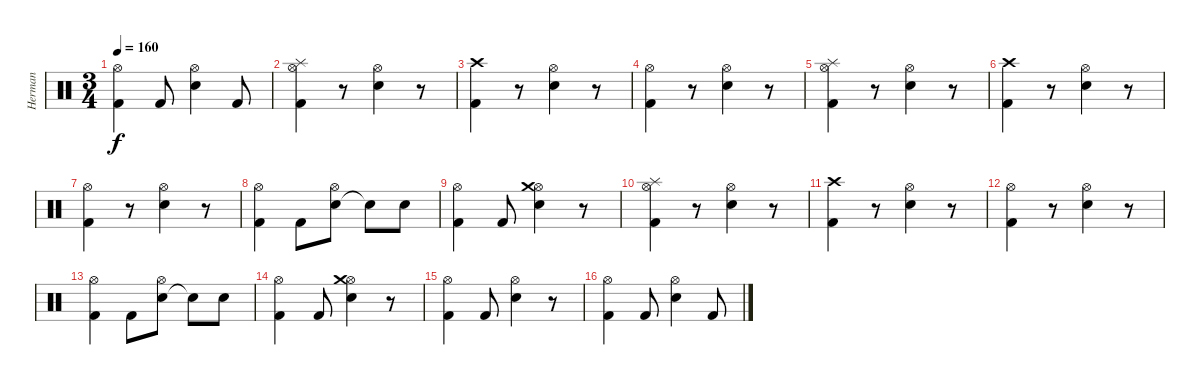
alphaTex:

\track ("Herman" "Herman") {instrument percussion}
\staff {score}
\articulation defaults
\ts (3 4)
\tempo 160
\clef neutral
\ks c
("Kick (hit) 2" "Hi-Hat (open)").4{dy f} "Kick (hit) 2".8 ("Electric Snare (hit)" "Hi-Hat (open)").4 "Kick (hit) 2".8 |
("Kick (hit) 2" "Hi-Hat (open)" "Splash (hit)").4 r.8 ("Electric Snare (hit)" "Hi-Hat (open)").4 r.8 |
("Kick (hit) 2" "Crash high (hit)").4 r.8 ("Electric Snare (hit)" "Hi-Hat (open)").4 r.8 |
("Kick (hit) 2" "Hi-Hat (open)").4 r.8 ("Electric Snare (hit)" "Hi-Hat (open)").4 r.8 |
("Kick (hit) 2" "Hi-Hat (open)" "Splash (hit)").4 r.8 ("Electric Snare (hit)" "Hi-Hat (open)").4 r.8 |
("Kick (hit) 2" "Crash high (hit)").4 r.8 ("Electric Snare (hit)" "Hi-Hat (open)").4 r.8 |
("Kick (hit) 2" "Hi-Hat (open)").4 r.8 ("Electric Snare (hit)" "Hi-Hat (open)").4 r.8 |
("Kick (hit) 2" "Hi-Hat (open)").4 "Kick (hit) 2".8 ("Electric Snare (hit)" "Hi-Hat (open)").8 "Snare (hit)"{t}.8 "Electric Snare (hit)".8 |
("Kick (hit) 2" "Hi-Hat (open)").4 "Kick (hit) 2".8 ("Electric Snare (hit)" "Hi-Hat (open)" "Crash medium (hit)").4 r.8 |
("Kick (hit) 2" "Hi-Hat (open)" "Splash (hit)").4 r.8 ("Electric Snare (hit)" "Hi-Hat (open)").4 r.8 |
("Kick (hit) 2" "Crash high (hit)").4 r.8 ("Electric Snare (hit)" "Hi-Hat (open)").4 r.8 |
("Kick (hit) 2" "Hi-Hat (open)").4 r.8 ("Electric Snare (hit)" "Hi-Hat (open)").4 r.8 |
("Kick (hit) 2" "Hi-Hat (open)").4 "Kick (hit) 2".8 ("Electric Snare (hit)" "Hi-Hat (open)").8 "Snare (hit)"{t}.8 "Electric Snare (hit)".8 |
("Kick (hit) 2" "Hi-Hat (open)").4 "Kick (hit) 2".8 ("Electric Snare (hit)" "Hi-Hat (open)" "Crash medium (hit)").4 r.8 |
("Kick (hit) 2" "Hi-Hat (open)").4 "Kick (hit) 2".8 ("Electric Snare (hit)" "Hi-Hat (open)").4 r.8 |
("Kick (hit) 2" "Hi-Hat (open)").4 "Kick (hit) 2".8 ("Electric Snare (hit)" "Hi-Hat (open)").4 "Kick (hit) 2".8
